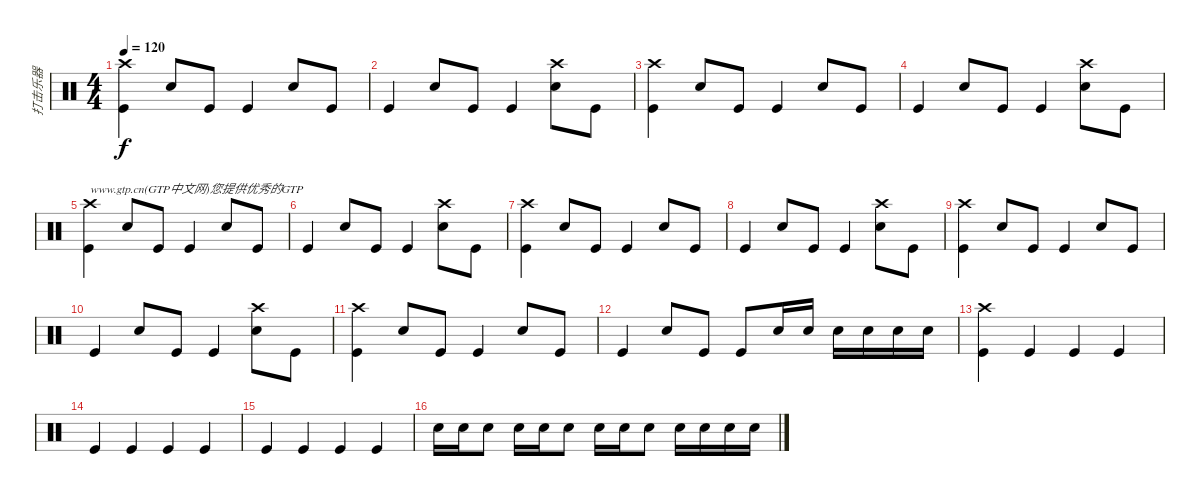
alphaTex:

\track ("打击乐器" "打击乐器") {instrument percussion}
\staff {score}
\articulation defaults
\ts (4 4)
\tempo 120
\clef neutral
\ks c
("Kick (hit)" "Crash high (hit)").4{dy f} "Electric Snare (hit)".8 "Kick (hit)".8 "Kick (hit)".4 "Electric Snare (hit)".8 "Kick (hit)".8 |
"Kick (hit)".4 "Electric Snare (hit)".8 "Kick (hit)".8 "Kick (hit)".4 ("Electric Snare (hit)" "Crash high (hit)").8 "Kick (hit)".8 |
("Kick (hit)" "Crash high (hit)").4 "Electric Snare (hit)".8 "Kick (hit)".8 "Kick (hit)".4 "Electric Snare (hit)".8 "Kick (hit)".8 |
"Kick (hit)".4 "Electric Snare (hit)".8 "Kick (hit)".8 "Kick (hit)".4 ("Electric Snare (hit)" "Crash high (hit)").8 "Kick (hit)".8 |
("Kick (hit)" "Crash high (hit)").4{txt "www.gtp.cn(GTP中文网)您提供优秀的GTP"} "Electric Snare (hit)".8 "Kick (hit)".8 "Kick (hit)".4 "Electric Snare (hit)".8 "Kick (hit)".8 |
"Kick (hit)".4 "Electric Snare (hit)".8 "Kick (hit)".8 "Kick (hit)".4 ("Electric Snare (hit)" "Crash high (hit)").8 "Kick (hit)".8 |
("Kick (hit)" "Crash high (hit)").4 "Electric Snare (hit)".8 "Kick (hit)".8 "Kick (hit)".4 "Electric Snare (hit)".8 "Kick (hit)".8 |
"Kick (hit)".4 "Electric Snare (hit)".8 "Kick (hit)".8 "Kick (hit)".4 ("Electric Snare (hit)" "Crash high (hit)").8 "Kick (hit)".8 |
("Kick (hit)" "Crash high (hit)").4 "Electric Snare (hit)".8 "Kick (hit)".8 "Kick (hit)".4 "Electric Snare (hit)".8 "Kick (hit)".8 |
"Kick (hit)".4 "Electric Snare (hit)".8 "Kick (hit)".8 "Kick (hit)".4 ("Electric Snare (hit)" "Crash high (hit)").8 "Kick (hit)".8 |
("Kick (hit)" "Crash high (hit)").4 "Electric Snare (hit)".8 "Kick (hit)".8 "Kick (hit)".4 "Electric Snare (hit)".8 "Kick (hit)".8 |
"Kick (hit)".4 "Electric Snare (hit)".8 "Kick (hit)".8 "Kick (hit)".8 "Electric Snare (hit)".16 "Electric Snare (hit)".16 "Electric Snare (hit)".16 "Electric Snare (hit)".16 "Electric Snare (hit)".16 "Electric Snare (hit)".16 |
("Kick (hit)" "Crash high (hit)").4 "Kick (hit)".4 "Kick (hit)".4 "Kick (hit)".4 |
"Kick (hit)".4 "Kick (hit)".4 "Kick (hit)".4 "Kick (hit)".4 |
"Kick (hit)".4 "Kick (hit)".4 "Kick (hit)".4 "Kick (hit)".4 |
"Electric Snare (hit)".16 "Electric Snare (hit)".16 "Electric Snare (hit)".8 "Electric Snare (hit)".16 "Electric Snare (hit)".16 "Electric Snare (hit)".8 "Electric Snare (hit)".16 "Electric Snare (hit)".16 "Electric Snare (hit)".8 "Electric Snare (hit)".16 "Electric Snare (hit)".16 "Electric Snare (hit)".16 "Electric Snare (hit)".16
